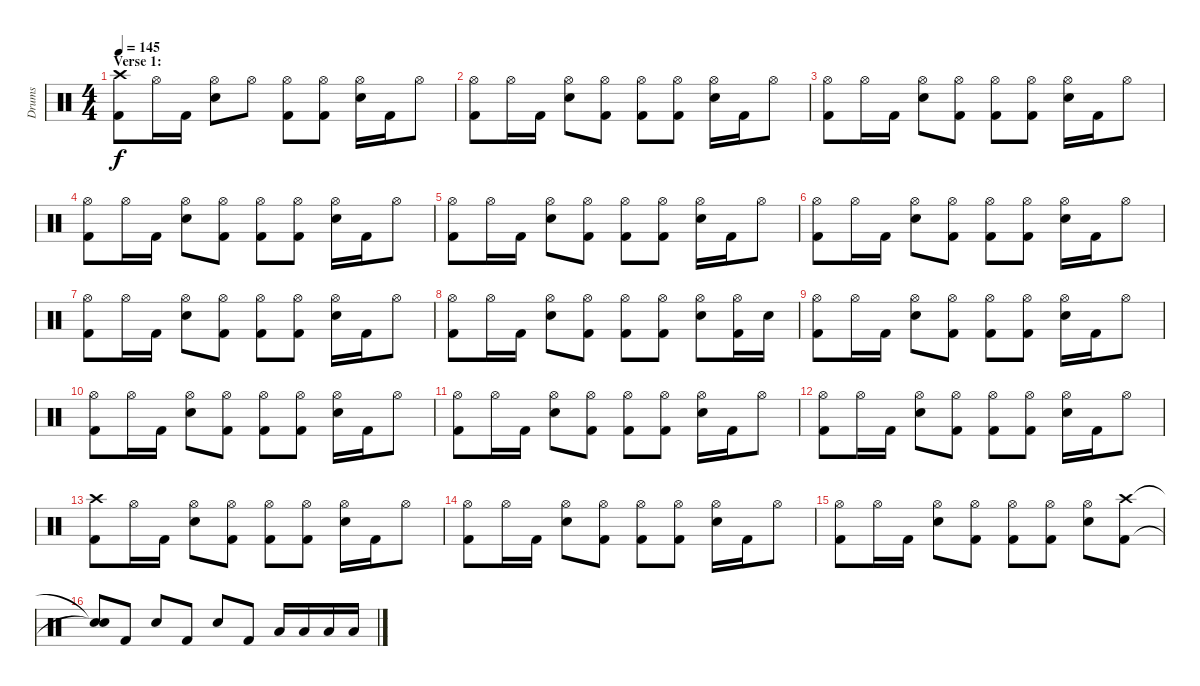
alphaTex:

\track ("Drums" "Drums") {instrument percussion}
\staff {score}
\articulation defaults
\ts (4 4)
\section ("" "Verse 1:")
\tempo 145
\clef neutral
\ks c
("Crash high (hit)" "Kick (hit) 2").8{dy f} "Hi-Hat (open)".16 "Kick (hit) 2".16 ("Hi-Hat (open)" "Snare (hit) 2").8 "Hi-Hat (open)".8 ("Hi-Hat (open)" "Kick (hit) 2").8 ("Hi-Hat (open)" "Kick (hit) 2").8 ("Hi-Hat (open)" "Snare (hit) 2").16 "Kick (hit) 2".16 "Hi-Hat (open)".8 |
("Hi-Hat (open)" "Kick (hit) 2").8 "Hi-Hat (open)".16 "Kick (hit) 2".16 ("Hi-Hat (open)" "Snare (hit) 2").8 ("Hi-Hat (open)" "Kick (hit) 2").8 ("Hi-Hat (open)" "Kick (hit) 2").8 ("Hi-Hat (open)" "Kick (hit) 2").8 ("Hi-Hat (open)" "Snare (hit) 2").16 "Kick (hit) 2".16 "Hi-Hat (open)".8 |
("Hi-Hat (open)" "Kick (hit) 2").8 "Hi-Hat (open)".16 "Kick (hit) 2".16 ("Hi-Hat (open)" "Snare (hit) 2").8 ("Hi-Hat (open)" "Kick (hit) 2").8 ("Hi-Hat (open)" "Kick (hit) 2").8 ("Hi-Hat (open)" "Kick (hit) 2").8 ("Hi-Hat (open)" "Snare (hit) 2").16 "Kick (hit) 2".16 "Hi-Hat (open)".8 |
("Hi-Hat (open)" "Kick (hit) 2").8 "Hi-Hat (open)".16 "Kick (hit) 2".16 ("Hi-Hat (open)" "Snare (hit) 2").8 ("Hi-Hat (open)" "Kick (hit) 2").8 ("Hi-Hat (open)" "Kick (hit) 2").8 ("Hi-Hat (open)" "Kick (hit) 2").8 ("Hi-Hat (open)" "Snare (hit) 2").16 "Kick (hit) 2".16 "Hi-Hat (open)".8 |
("Hi-Hat (open)" "Kick (hit) 2").8 "Hi-Hat (open)".16 "Kick (hit) 2".16 ("Hi-Hat (open)" "Snare (hit) 2").8 ("Hi-Hat (open)" "Kick (hit) 2").8 ("Hi-Hat (open)" "Kick (hit) 2").8 ("Hi-Hat (open)" "Kick (hit) 2").8 ("Hi-Hat (open)" "Snare (hit) 2").16 "Kick (hit) 2".16 "Hi-Hat (open)".8 |
("Hi-Hat (open)" "Kick (hit) 2").8 "Hi-Hat (open)".16 "Kick (hit) 2".16 ("Hi-Hat (open)" "Snare (hit) 2").8 ("Hi-Hat (open)" "Kick (hit) 2").8 ("Hi-Hat (open)" "Kick (hit) 2").8 ("Hi-Hat (open)" "Kick (hit) 2").8 ("Hi-Hat (open)" "Snare (hit) 2").16 "Kick (hit) 2".16 "Hi-Hat (open)".8 |
("Hi-Hat (open)" "Kick (hit) 2").8 "Hi-Hat (open)".16 "Kick (hit) 2".16 ("Hi-Hat (open)" "Snare (hit) 2").8 ("Hi-Hat (open)" "Kick (hit) 2").8 ("Hi-Hat (open)" "Kick (hit) 2").8 ("Hi-Hat (open)" "Kick (hit) 2").8 ("Hi-Hat (open)" "Snare (hit) 2").16 "Kick (hit) 2".16 "Hi-Hat (open)".8 |
("Hi-Hat (open)" "Kick (hit) 2").8 "Hi-Hat (open)".16 "Kick (hit) 2".16 ("Hi-Hat (open)" "Snare (hit) 2").8 ("Hi-Hat (open)" "Kick (hit) 2").8 ("Hi-Hat (open)" "Kick (hit) 2").8 ("Hi-Hat (open)" "Kick (hit) 2").8 ("Hi-Hat (open)" "Snare (hit) 2").8 ("Hi-Hat (open)" "Kick (hit) 2").16 "Snare (hit) 2".16 |
("Hi-Hat (open)" "Kick (hit) 2").8 "Hi-Hat (open)".16 "Kick (hit) 2".16 ("Hi-Hat (open)" "Snare (hit) 2").8 ("Hi-Hat (open)" "Kick (hit) 2").8 ("Hi-Hat (open)" "Kick (hit) 2").8 ("Hi-Hat (open)" "Kick (hit) 2").8 ("Hi-Hat (open)" "Snare (hit) 2").16 "Kick (hit) 2".16 "Hi-Hat (open)".8 |
("Hi-Hat (open)" "Kick (hit) 2").8 "Hi-Hat (open)".16 "Kick (hit) 2".16 ("Hi-Hat (open)" "Snare (hit) 2").8 ("Hi-Hat (open)" "Kick (hit) 2").8 ("Hi-Hat (open)" "Kick (hit) 2").8 ("Hi-Hat (open)" "Kick (hit) 2").8 ("Hi-Hat (open)" "Snare (hit) 2").16 "Kick (hit) 2".16 "Hi-Hat (open)".8 |
("Hi-Hat (open)" "Kick (hit) 2").8 "Hi-Hat (open)".16 "Kick (hit) 2".16 ("Hi-Hat (open)" "Snare (hit) 2").8 ("Hi-Hat (open)" "Kick (hit) 2").8 ("Hi-Hat (open)" "Kick (hit) 2").8 ("Hi-Hat (open)" "Kick (hit) 2").8 ("Hi-Hat (open)" "Snare (hit) 2").16 "Kick (hit) 2".16 "Hi-Hat (open)".8 |
("Hi-Hat (open)" "Kick (hit) 2").8 "Hi-Hat (open)".16 "Kick (hit) 2".16 ("Hi-Hat (open)" "Snare (hit) 2").8 ("Hi-Hat (open)" "Kick (hit) 2").8 ("Hi-Hat (open)" "Kick (hit) 2").8 ("Hi-Hat (open)" "Kick (hit) 2").8 ("Hi-Hat (open)" "Snare (hit) 2").16 "Kick (hit) 2".16 "Hi-Hat (open)".8 |
("Crash high (hit)" "Kick (hit) 2").8 "Hi-Hat (open)".16 "Kick (hit) 2".16 ("Hi-Hat (open)" "Snare (hit) 2").8 ("Hi-Hat (open)" "Kick (hit) 2").8 ("Hi-Hat (open)" "Kick (hit) 2").8 ("Hi-Hat (open)" "Kick (hit) 2").8 ("Hi-Hat (open)" "Snare (hit) 2").16 "Kick (hit) 2".16 "Hi-Hat (open)".8 |
("Hi-Hat (open)" "Kick (hit) 2").8 "Hi-Hat (open)".16 "Kick (hit) 2".16 ("Hi-Hat (open)" "Snare (hit) 2").8 ("Hi-Hat (open)" "Kick (hit) 2").8 ("Hi-Hat (open)" "Kick (hit) 2").8 ("Hi-Hat (open)" "Kick (hit) 2").8 ("Hi-Hat (open)" "Snare (hit) 2").16 "Kick (hit) 2".16 "Hi-Hat (open)".8 |
("Hi-Hat (open)" "Kick (hit) 2").8 "Hi-Hat (open)".16 "Kick (hit) 2".16 ("Hi-Hat (open)" "Snare (hit) 2").8 ("Hi-Hat (open)" "Kick (hit) 2").8 ("Hi-Hat (open)" "Kick (hit) 2").8 ("Hi-Hat (open)" "Kick (hit) 2").8 ("Hi-Hat (open)" "Snare (hit) 2").8 ("Crash high (hit)" "Kick (hit) 2").8 |
("Snare (hit)"{t} "Snare (hit)"{t}).8 "Kick (hit) 2".8 "Snare (hit) 2".8 "Kick (hit) 2".8 "Snare (hit) 2".8 "Kick (hit) 2".8 "Low Floor Tom (hit)".16 "Low Floor Tom (hit)".16 "Low Floor Tom (hit)".16 "Low Floor Tom (hit)".16
